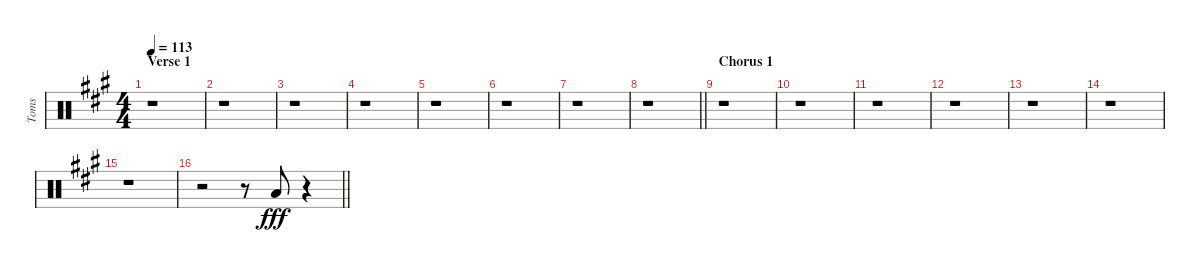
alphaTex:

\track ("Toms" "Toms") {instrument percussion}
\staff {score}
\articulation defaults
\ts (4 4)
\section ("" "Verse 1")
\tempo 113
\clef neutral
\ks f#minor
r.1{dy fff} |
r.1 |
r.1 |
r.1 |
r.1 |
r.1 |
r.1 |
\barLineRight lightlight
r.1 |
\section ("" "Chorus 1")
r.1 |
r.1 |
r.1 |
r.1 |
r.1 |
r.1 |
r.1 |
\barLineRight lightlight
r.2 r.8{volume 16} "Low Tom (hit)".8{volume 0} r.4
